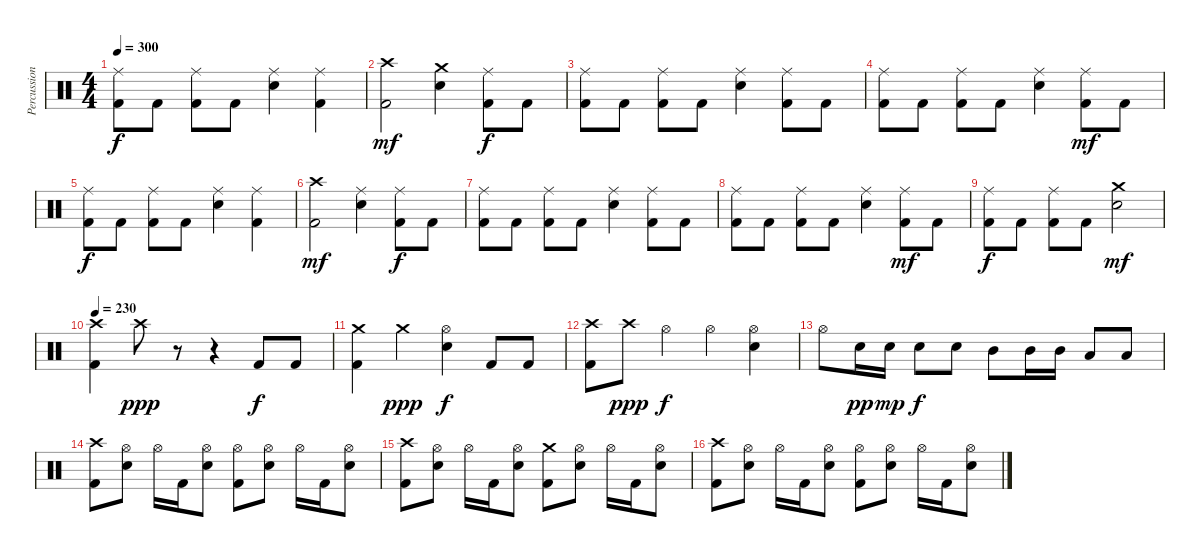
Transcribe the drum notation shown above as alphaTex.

\track ("Percussion" "Percussion") {instrument percussion}
\staff {score}
\articulation defaults
\ts (4 4)
\tempo 300
\clef neutral
\ks c
("Ride (middle)" "Kick (hit) 2").8{dy f} "Kick (hit) 2".8 ("Ride (middle)" "Kick (hit) 2").8 "Kick (hit) 2".8 ("Ride (middle)" "Electric Snare (hit)").4 ("Ride (middle)" "Kick (hit) 2").4 |
("Crash high (hit)" "Kick (hit) 2").2{dy mf} ("Crash medium (hit)" "Electric Snare (hit)").4 ("Ride (middle)" "Kick (hit) 2").8{dy f} "Kick (hit) 2".8 |
("Ride (middle)" "Kick (hit) 2").8 "Kick (hit) 2".8 ("Ride (middle)" "Kick (hit) 2").8 "Kick (hit) 2".8 ("Ride (middle)" "Electric Snare (hit)").4 ("Ride (middle)" "Kick (hit) 2").8 "Kick (hit) 2".8 |
("Ride (middle)" "Kick (hit) 2").8 "Kick (hit) 2".8 ("Ride (middle)" "Kick (hit) 2").8 "Kick (hit) 2".8 ("Ride (middle)" "Electric Snare (hit)").4 ("Ride (middle)" "Kick (hit) 2").8{dy mf} "Kick (hit) 2".8 |
("Ride (middle)" "Kick (hit) 2").8{dy f} "Kick (hit) 2".8 ("Ride (middle)" "Kick (hit) 2").8 "Kick (hit) 2".8 ("Ride (middle)" "Electric Snare (hit)").4 ("Ride (middle)" "Kick (hit) 2").4 |
("Crash high (hit)" "Kick (hit) 2").2{dy mf} ("Ride (middle)" "Electric Snare (hit)").4 ("Ride (middle)" "Kick (hit) 2").8{dy f} "Kick (hit) 2".8 |
("Ride (middle)" "Kick (hit) 2").8 "Kick (hit) 2".8 ("Ride (middle)" "Kick (hit) 2").8 "Kick (hit) 2".8 ("Ride (middle)" "Electric Snare (hit)").4 ("Ride (middle)" "Kick (hit) 2").8 "Kick (hit) 2".8 |
("Ride (middle)" "Kick (hit) 2").8 "Kick (hit) 2".8 ("Ride (middle)" "Kick (hit) 2").8 "Kick (hit) 2".8 ("Ride (middle)" "Electric Snare (hit)").4 ("Ride (middle)" "Kick (hit) 2").8{dy mf} "Kick (hit) 2".8 |
("Ride (middle)" "Kick (hit) 2").8{dy f} "Kick (hit) 2".8 ("Ride (middle)" "Kick (hit) 2").8 "Kick (hit) 2".8 ("Crash medium (hit)" "Electric Snare (hit)").2{dy mf} |
\tempo 230
("Crash high (hit)" "Kick (hit) 2").4 "Crash high (hit)".8{dy ppp volume 0} r.8 r.4 "Kick (hit) 2".8{dy f volume 13} "Kick (hit) 2".8 |
("Crash medium (hit)" "Kick (hit) 2").4 "Crash medium (hit)".4{dy ppp volume 0} ("Hi-Hat (open)" "Electric Snare (hit)").4{dy f volume 13} "Kick (hit) 2".8 "Kick (hit) 2".8 |
("Crash high (hit)" "Kick (hit) 2").8 "Crash high (hit)".8{dy ppp volume 0} "Hi-Hat (open)".4{dy f volume 13} "Hi-Hat (open)".4 ("Hi-Hat (open)" "Electric Snare (hit)").4 |
"Hi-Hat (open)".8 "Electric Snare (hit)".16{dy pp} "Electric Snare (hit)".16{dy mp} "Electric Snare (hit)".8{dy f} "Electric Snare (hit)".8 "Mid Tom (hit)".8 "Mid Tom (hit)".16 "Mid Tom (hit)".16 "Low Tom (hit)".8 "Low Tom (hit)".8 |
("Crash high (hit)" "Kick (hit) 2").8 ("Hi-Hat (open)" "Electric Snare (hit)").8 "Hi-Hat (open)".16 "Kick (hit) 2".16 ("Hi-Hat (open)" "Electric Snare (hit)").8 ("Hi-Hat (open)" "Kick (hit) 2").8 ("Hi-Hat (open)" "Electric Snare (hit)").8 "Hi-Hat (open)".16 "Kick (hit) 2".16 ("Hi-Hat (open)" "Electric Snare (hit)").8 |
("Crash high (hit)" "Kick (hit) 2").8 ("Hi-Hat (open)" "Electric Snare (hit)").8 "Hi-Hat (open)".16 "Kick (hit) 2".16 ("Hi-Hat (open)" "Electric Snare (hit)").8 ("Crash medium (hit)" "Kick (hit) 2").8 ("Hi-Hat (open)" "Electric Snare (hit)").8 "Hi-Hat (open)".16 "Kick (hit) 2".16 ("Hi-Hat (open)" "Electric Snare (hit)").8 |
("Crash high (hit)" "Kick (hit) 2").8 ("Hi-Hat (open)" "Electric Snare (hit)").8 "Hi-Hat (open)".16 "Kick (hit) 2".16 ("Hi-Hat (open)" "Electric Snare (hit)").8 ("Hi-Hat (open)" "Kick (hit) 2").8 ("Hi-Hat (open)" "Electric Snare (hit)").8 "Hi-Hat (open)".16 "Kick (hit) 2".16 ("Hi-Hat (open)" "Electric Snare (hit)").8
